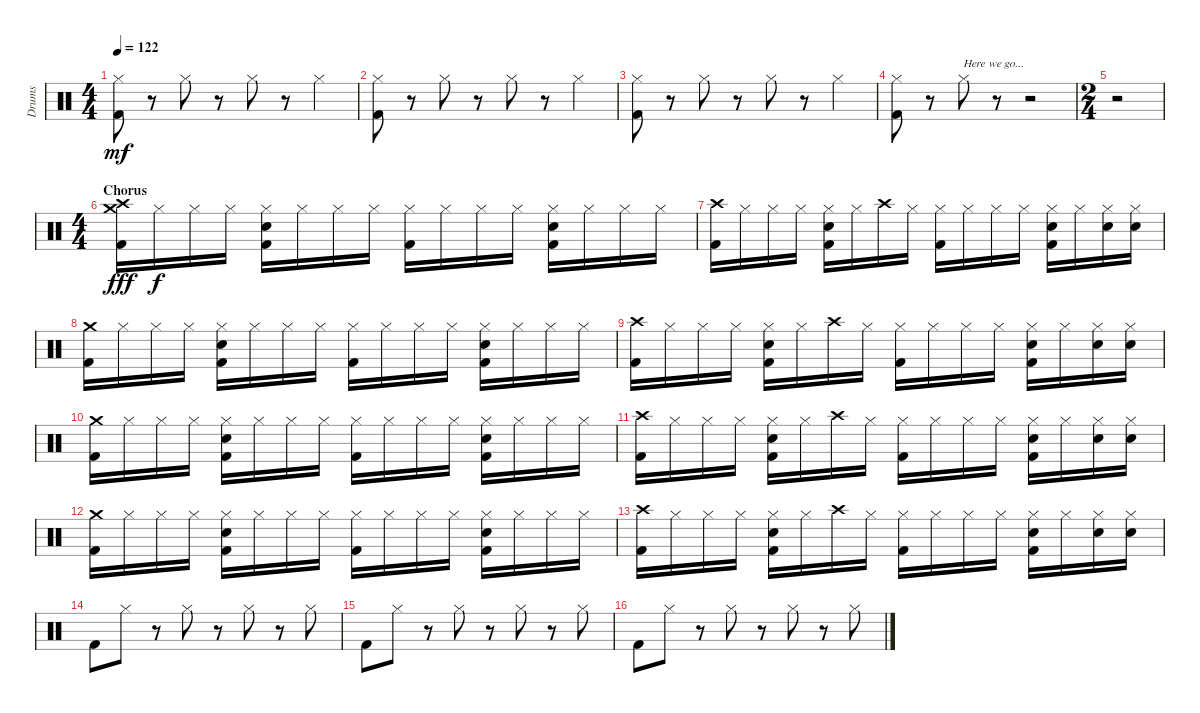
\track ("Drums" "Drums") {instrument percussion}
\staff {score}
\articulation defaults
\ts (4 4)
\section ("" "")
\tempo 122
\clef neutral
\ks c
("Hi-Hat (closed)" "Kick (hit) 2").8{dy mf} r.8 "Hi-Hat (closed)".8 r.8 "Hi-Hat (closed)".8 r.8 "Hi-Hat (closed)".4 |
("Hi-Hat (closed)" "Kick (hit) 2").8 r.8 "Hi-Hat (closed)".8 r.8 "Hi-Hat (closed)".8 r.8 "Hi-Hat (closed)".4 |
("Hi-Hat (closed)" "Kick (hit) 2").8 r.8 "Hi-Hat (closed)".8 r.8 "Hi-Hat (closed)".8 r.8 "Hi-Hat (closed)".4 |
("Hi-Hat (closed)" "Kick (hit) 2").8 r.8 "Hi-Hat (closed)".8{txt "Here we go..."} r.8 r.2 |
\ts (2 4)
r.2 |
\ts (4 4)
\section ("" "Chorus")
("Crash medium (hit)" "Crash high (hit)" "Kick (hit) 2").16{dy fff} "Hi-Hat (closed)".16{dy f} "Hi-Hat (closed)".16 "Hi-Hat (closed)".16 ("Hi-Hat (closed)" "Electric Snare (hit)" "Kick (hit) 2").16 "Hi-Hat (closed)".16 "Hi-Hat (closed)".16 "Hi-Hat (closed)".16 ("Hi-Hat (closed)" "Kick (hit) 2").16 "Hi-Hat (closed)".16 "Hi-Hat (closed)".16 "Hi-Hat (closed)".16 ("Hi-Hat (closed)" "Electric Snare (hit)" "Kick (hit) 2").16 "Hi-Hat (closed)".16 "Hi-Hat (closed)".16 "Hi-Hat (closed)".16 |
("Crash high (hit)" "Kick (hit) 2").16{balance 1} "Hi-Hat (closed)".16{balance 8} "Hi-Hat (closed)".16 "Hi-Hat (closed)".16 ("Hi-Hat (closed)" "Electric Snare (hit)" "Kick (hit) 2").16 "Hi-Hat (closed)".16 "Crash high (hit)".16{balance 0} "Hi-Hat (closed)".16{balance 8} ("Hi-Hat (closed)" "Kick (hit) 2").16 "Hi-Hat (closed)".16 "Hi-Hat (closed)".16 "Hi-Hat (closed)".16 ("Hi-Hat (closed)" "Electric Snare (hit)" "Kick (hit) 2").16 "Hi-Hat (closed)".16 ("Hi-Hat (closed)" "Electric Snare (hit)").16 ("Hi-Hat (closed)" "Electric Snare (hit)").16 |
("Crash medium (hit)" "Kick (hit) 2").16 "Hi-Hat (closed)".16 "Hi-Hat (closed)".16 "Hi-Hat (closed)".16 ("Hi-Hat (closed)" "Electric Snare (hit)" "Kick (hit) 2").16 "Hi-Hat (closed)".16 "Hi-Hat (closed)".16 "Hi-Hat (closed)".16 ("Hi-Hat (closed)" "Kick (hit) 2").16 "Hi-Hat (closed)".16 "Hi-Hat (closed)".16 "Hi-Hat (closed)".16 ("Hi-Hat (closed)" "Electric Snare (hit)" "Kick (hit) 2").16 "Hi-Hat (closed)".16 "Hi-Hat (closed)".16 "Hi-Hat (closed)".16 |
("Crash high (hit)" "Kick (hit) 2").16{balance 1} "Hi-Hat (closed)".16{balance 8} "Hi-Hat (closed)".16 "Hi-Hat (closed)".16 ("Hi-Hat (closed)" "Electric Snare (hit)" "Kick (hit) 2").16 "Hi-Hat (closed)".16 "Crash high (hit)".16{balance 0} "Hi-Hat (closed)".16{balance 8} ("Hi-Hat (closed)" "Kick (hit) 2").16 "Hi-Hat (closed)".16 "Hi-Hat (closed)".16 "Hi-Hat (closed)".16 ("Hi-Hat (closed)" "Electric Snare (hit)" "Kick (hit) 2").16 "Hi-Hat (closed)".16 ("Hi-Hat (closed)" "Electric Snare (hit)").16 ("Hi-Hat (closed)" "Electric Snare (hit)").16 |
("Crash medium (hit)" "Kick (hit) 2").16 "Hi-Hat (closed)".16 "Hi-Hat (closed)".16 "Hi-Hat (closed)".16 ("Hi-Hat (closed)" "Electric Snare (hit)" "Kick (hit) 2").16 "Hi-Hat (closed)".16 "Hi-Hat (closed)".16 "Hi-Hat (closed)".16 ("Hi-Hat (closed)" "Kick (hit) 2").16 "Hi-Hat (closed)".16 "Hi-Hat (closed)".16 "Hi-Hat (closed)".16 ("Hi-Hat (closed)" "Electric Snare (hit)" "Kick (hit) 2").16 "Hi-Hat (closed)".16 "Hi-Hat (closed)".16 "Hi-Hat (closed)".16 |
("Crash high (hit)" "Kick (hit) 2").16{balance 1} "Hi-Hat (closed)".16{balance 8} "Hi-Hat (closed)".16 "Hi-Hat (closed)".16 ("Hi-Hat (closed)" "Electric Snare (hit)" "Kick (hit) 2").16 "Hi-Hat (closed)".16 "Crash high (hit)".16{balance 0} "Hi-Hat (closed)".16{balance 8} ("Hi-Hat (closed)" "Kick (hit) 2").16 "Hi-Hat (closed)".16 "Hi-Hat (closed)".16 "Hi-Hat (closed)".16 ("Hi-Hat (closed)" "Electric Snare (hit)" "Kick (hit) 2").16 "Hi-Hat (closed)".16 ("Hi-Hat (closed)" "Electric Snare (hit)").16 ("Hi-Hat (closed)" "Electric Snare (hit)").16 |
("Crash medium (hit)" "Kick (hit) 2").16 "Hi-Hat (closed)".16 "Hi-Hat (closed)".16 "Hi-Hat (closed)".16 ("Hi-Hat (closed)" "Electric Snare (hit)" "Kick (hit) 2").16 "Hi-Hat (closed)".16 "Hi-Hat (closed)".16 "Hi-Hat (closed)".16 ("Hi-Hat (closed)" "Kick (hit) 2").16 "Hi-Hat (closed)".16 "Hi-Hat (closed)".16 "Hi-Hat (closed)".16 ("Hi-Hat (closed)" "Electric Snare (hit)" "Kick (hit) 2").16 "Hi-Hat (closed)".16 "Hi-Hat (closed)".16 "Hi-Hat (closed)".16 |
("Crash high (hit)" "Kick (hit) 2").16{balance 1} "Hi-Hat (closed)".16{balance 8} "Hi-Hat (closed)".16 "Hi-Hat (closed)".16 ("Hi-Hat (closed)" "Electric Snare (hit)" "Kick (hit) 2").16 "Hi-Hat (closed)".16 "Crash high (hit)".16{balance 0} "Hi-Hat (closed)".16{balance 8} ("Hi-Hat (closed)" "Kick (hit) 2").16 "Hi-Hat (closed)".16 "Hi-Hat (closed)".16 "Hi-Hat (closed)".16 ("Hi-Hat (closed)" "Electric Snare (hit)" "Kick (hit) 2").16 "Hi-Hat (closed)".16 ("Hi-Hat (closed)" "Electric Snare (hit)").16 ("Hi-Hat (closed)" "Electric Snare (hit)").16 |
\section ("" "")
"Kick (hit) 2".8 "Hi-Hat (closed)".8 r.8 "Hi-Hat (closed)".8 r.8 "Hi-Hat (closed)".8 r.8 "Hi-Hat (closed)".8 |
"Kick (hit) 2".8 "Hi-Hat (closed)".8 r.8 "Hi-Hat (closed)".8 r.8 "Hi-Hat (closed)".8 r.8 "Hi-Hat (closed)".8 |
"Kick (hit) 2".8 "Hi-Hat (closed)".8 r.8 "Hi-Hat (closed)".8 r.8 "Hi-Hat (closed)".8 r.8 "Hi-Hat (closed)".8
